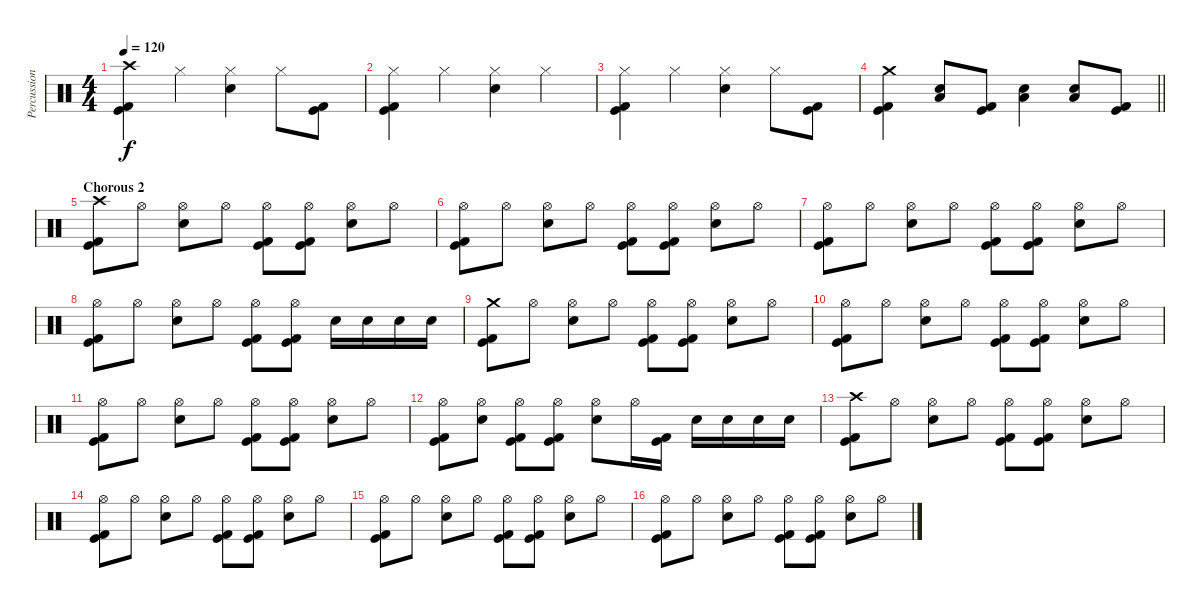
\track ("Percussion" "Percussion") {instrument percussion}
\staff {score}
\articulation defaults
\ts (4 4)
\section ("" "")
\tempo 120
\clef neutral
\ks c
("Crash high (hit)" "Kick (hit)" "Kick (hit) 2").4{dy f} "Hi-Hat (closed)".4 ("Hi-Hat (closed)" "Electric Snare (hit)").4 "Hi-Hat (closed)".8 ("Kick (hit)" "Kick (hit) 2").8 |
("Hi-Hat (closed)" "Kick (hit)" "Kick (hit) 2").4 "Hi-Hat (closed)".4 ("Hi-Hat (closed)" "Electric Snare (hit)").4 "Hi-Hat (closed)".4 |
("Hi-Hat (closed)" "Kick (hit)" "Kick (hit) 2").4 "Hi-Hat (closed)".4 ("Hi-Hat (closed)" "Electric Snare (hit)").4 "Hi-Hat (closed)".8 ("Kick (hit)" "Kick (hit) 2").8 |
\barLineRight lightlight
("Crash medium (hit)" "Kick (hit)" "Kick (hit) 2").4 ("Electric Snare (hit)" "Low Floor Tom (hit)").8 ("Kick (hit)" "Kick (hit) 2").8 ("Electric Snare (hit)" "Low Floor Tom (hit)").4 ("Electric Snare (hit)" "Low Floor Tom (hit)").8 ("Kick (hit)" "Kick (hit) 2").8 |
\section ("" "Chorous 2")
("Crash high (hit)" "Kick (hit)" "Kick (hit) 2").8 "Hi-Hat (open)".8 ("Hi-Hat (open)" "Electric Snare (hit)").8 "Hi-Hat (open)".8 ("Hi-Hat (open)" "Kick (hit)" "Kick (hit) 2").8 ("Hi-Hat (open)" "Kick (hit)" "Kick (hit) 2").8 ("Hi-Hat (open)" "Electric Snare (hit)").8 "Hi-Hat (open)".8 |
("Hi-Hat (open)" "Kick (hit)" "Kick (hit) 2").8 "Hi-Hat (open)".8 ("Hi-Hat (open)" "Electric Snare (hit)").8 "Hi-Hat (open)".8 ("Hi-Hat (open)" "Kick (hit)" "Kick (hit) 2").8 ("Hi-Hat (open)" "Kick (hit)" "Kick (hit) 2").8 ("Hi-Hat (open)" "Electric Snare (hit)").8 "Hi-Hat (open)".8 |
("Hi-Hat (open)" "Kick (hit)" "Kick (hit) 2").8 "Hi-Hat (open)".8 ("Hi-Hat (open)" "Electric Snare (hit)").8 "Hi-Hat (open)".8 ("Hi-Hat (open)" "Kick (hit)" "Kick (hit) 2").8 ("Hi-Hat (open)" "Kick (hit)" "Kick (hit) 2").8 ("Hi-Hat (open)" "Electric Snare (hit)").8 "Hi-Hat (open)".8 |
("Hi-Hat (open)" "Kick (hit)" "Kick (hit) 2").8 "Hi-Hat (open)".8 ("Hi-Hat (open)" "Electric Snare (hit)").8 "Hi-Hat (open)".8 ("Hi-Hat (open)" "Kick (hit)" "Kick (hit) 2").8 ("Hi-Hat (open)" "Kick (hit)" "Kick (hit) 2").8 "Electric Snare (hit)".16 "Electric Snare (hit)".16 "Electric Snare (hit)".16 "Electric Snare (hit)".16 |
("Crash medium (hit)" "Kick (hit)" "Kick (hit) 2").8 "Hi-Hat (open)".8 ("Hi-Hat (open)" "Electric Snare (hit)").8 "Hi-Hat (open)".8 ("Hi-Hat (open)" "Kick (hit)" "Kick (hit) 2").8 ("Hi-Hat (open)" "Kick (hit)" "Kick (hit) 2").8 ("Hi-Hat (open)" "Electric Snare (hit)").8 "Hi-Hat (open)".8 |
("Hi-Hat (open)" "Kick (hit)" "Kick (hit) 2").8 "Hi-Hat (open)".8 ("Hi-Hat (open)" "Electric Snare (hit)").8 "Hi-Hat (open)".8 ("Hi-Hat (open)" "Kick (hit)" "Kick (hit) 2").8 ("Hi-Hat (open)" "Kick (hit)" "Kick (hit) 2").8 ("Hi-Hat (open)" "Electric Snare (hit)").8 "Hi-Hat (open)".8 |
("Hi-Hat (open)" "Kick (hit)" "Kick (hit) 2").8 "Hi-Hat (open)".8 ("Hi-Hat (open)" "Electric Snare (hit)").8 "Hi-Hat (open)".8 ("Hi-Hat (open)" "Kick (hit)" "Kick (hit) 2").8 ("Hi-Hat (open)" "Kick (hit)" "Kick (hit) 2").8 ("Hi-Hat (open)" "Electric Snare (hit)").8 "Hi-Hat (open)".8 |
("Hi-Hat (open)" "Kick (hit)" "Kick (hit) 2").8 ("Hi-Hat (open)" "Electric Snare (hit)").8 ("Hi-Hat (open)" "Kick (hit)" "Kick (hit) 2").8 ("Hi-Hat (open)" "Kick (hit)" "Kick (hit) 2").8 ("Hi-Hat (open)" "Electric Snare (hit)").8 "Hi-Hat (open)".16 ("Kick (hit)" "Kick (hit) 2").16 "Electric Snare (hit)".16 "Electric Snare (hit)".16 "Electric Snare (hit)".16 "Electric Snare (hit)".16 |
("Crash high (hit)" "Kick (hit)" "Kick (hit) 2").8 "Hi-Hat (open)".8 ("Hi-Hat (open)" "Electric Snare (hit)").8 "Hi-Hat (open)".8 ("Hi-Hat (open)" "Kick (hit)" "Kick (hit) 2").8 ("Hi-Hat (open)" "Kick (hit)" "Kick (hit) 2").8 ("Hi-Hat (open)" "Electric Snare (hit)").8 "Hi-Hat (open)".8 |
("Hi-Hat (open)" "Kick (hit)" "Kick (hit) 2").8 "Hi-Hat (open)".8 ("Hi-Hat (open)" "Electric Snare (hit)").8 "Hi-Hat (open)".8 ("Hi-Hat (open)" "Kick (hit)" "Kick (hit) 2").8 ("Hi-Hat (open)" "Kick (hit)" "Kick (hit) 2").8 ("Hi-Hat (open)" "Electric Snare (hit)").8 "Hi-Hat (open)".8 |
("Hi-Hat (open)" "Kick (hit)" "Kick (hit) 2").8 "Hi-Hat (open)".8 ("Hi-Hat (open)" "Electric Snare (hit)").8 "Hi-Hat (open)".8 ("Hi-Hat (open)" "Kick (hit)" "Kick (hit) 2").8 ("Hi-Hat (open)" "Kick (hit)" "Kick (hit) 2").8 ("Hi-Hat (open)" "Electric Snare (hit)").8 "Hi-Hat (open)".8 |
("Hi-Hat (open)" "Kick (hit)" "Kick (hit) 2").8 "Hi-Hat (open)".8 ("Hi-Hat (open)" "Electric Snare (hit)").8 "Hi-Hat (open)".8 ("Hi-Hat (open)" "Kick (hit)" "Kick (hit) 2").8 ("Hi-Hat (open)" "Kick (hit)" "Kick (hit) 2").8 ("Hi-Hat (open)" "Electric Snare (hit)").8 "Hi-Hat (open)".8
